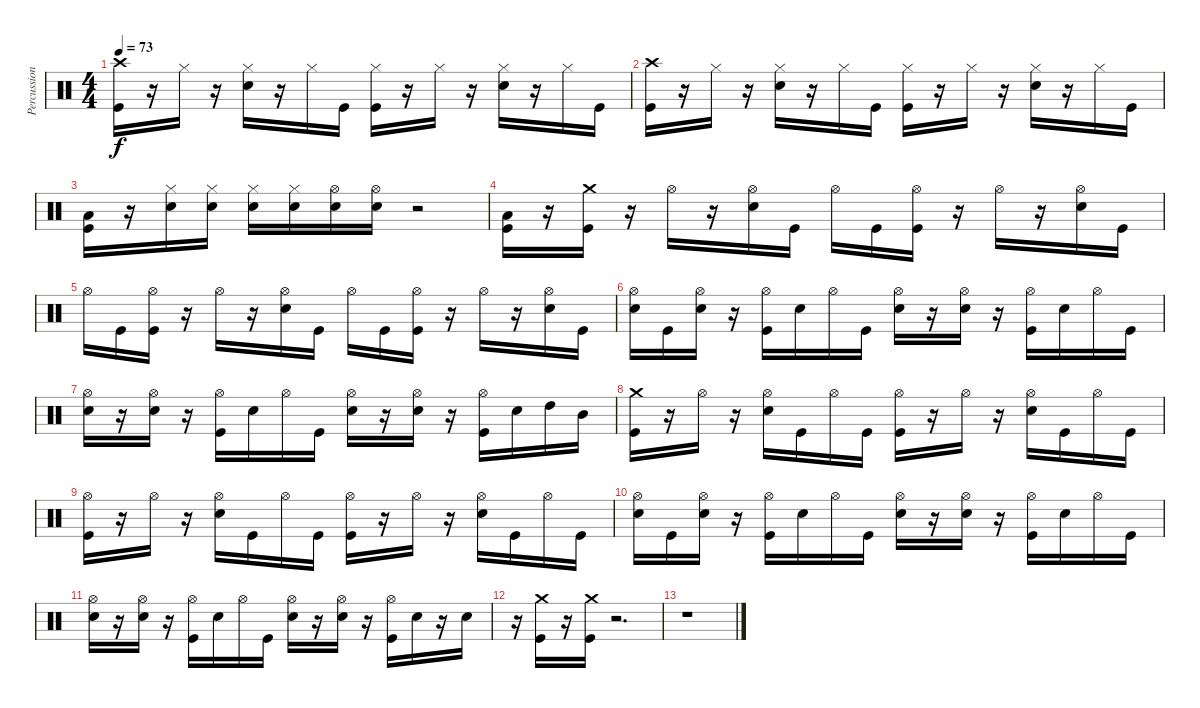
\track ("Percussion" "Percussion") {instrument percussion}
\staff {score}
\articulation defaults
\ts (4 4)
\tempo 73
\clef neutral
\ks c
("Crash high (hit)" "Kick (hit)").16{dy f} r.16 "Hi-Hat (closed)".16 r.16 ("Hi-Hat (closed)" "Electric Snare (hit)").16 r.16 "Hi-Hat (closed)".16 "Kick (hit)".16 ("Hi-Hat (closed)" "Kick (hit)").16 r.16 "Hi-Hat (closed)".16 r.16 ("Hi-Hat (closed)" "Electric Snare (hit)").16 r.16 "Hi-Hat (closed)".16 "Kick (hit)".16 |
("Crash high (hit)" "Kick (hit)").16 r.16 "Hi-Hat (closed)".16 r.16 ("Hi-Hat (closed)" "Electric Snare (hit)").16 r.16 "Hi-Hat (closed)".16 "Kick (hit)".16 ("Hi-Hat (closed)" "Kick (hit)").16 r.16 "Hi-Hat (closed)".16 r.16 ("Hi-Hat (closed)" "Electric Snare (hit)").16 r.16 "Hi-Hat (closed)".16 "Kick (hit)".16 |
("Low Tom (hit)" "Kick (hit)").16 r.16 ("Hi-Hat (closed)" "Electric Snare (hit)").16 ("Hi-Hat (closed)" "Electric Snare (hit)").16 ("Hi-Hat (closed)" "Electric Snare (hit)").16 ("Hi-Hat (closed)" "Electric Snare (hit)").16 ("Hi-Hat (open)" "Electric Snare (hit)").16 ("Hi-Hat (open)" "Electric Snare (hit)").16 r.2 |
("Low Tom (hit)" "Kick (hit)").16 r.16 ("Crash medium (hit)" "Kick (hit)").16 r.16 "Hi-Hat (open)".16 r.16 ("Hi-Hat (open)" "Electric Snare (hit)").16 "Kick (hit)".16 "Hi-Hat (open)".16 "Kick (hit)".16 ("Hi-Hat (open)" "Kick (hit)").16 r.16 "Hi-Hat (open)".16 r.16 ("Hi-Hat (open)" "Electric Snare (hit)").16 "Kick (hit)".16 |
"Hi-Hat (open)".16 "Kick (hit)".16 ("Hi-Hat (open)" "Kick (hit)").16 r.16 "Hi-Hat (open)".16 r.16 ("Hi-Hat (open)" "Electric Snare (hit)").16 "Kick (hit)".16 "Hi-Hat (open)".16 "Kick (hit)".16 ("Hi-Hat (open)" "Kick (hit)").16 r.16 "Hi-Hat (open)".16 r.16 ("Hi-Hat (open)" "Electric Snare (hit)").16 "Kick (hit)".16 |
("Hi-Hat (open)" "Electric Snare (hit)").16 "Kick (hit)".16 ("Hi-Hat (open)" "Electric Snare (hit)").16 r.16 ("Hi-Hat (open)" "Kick (hit)").16 "Electric Snare (hit)".16 "Hi-Hat (open)".16 "Kick (hit)".16 ("Hi-Hat (open)" "Electric Snare (hit)").16 r.16 ("Hi-Hat (open)" "Electric Snare (hit)").16 r.16 ("Hi-Hat (open)" "Kick (hit)").16 "Electric Snare (hit)".16 "Hi-Hat (open)".16 "Kick (hit)".16 |
("Hi-Hat (open)" "Electric Snare (hit)").16 r.16 ("Hi-Hat (open)" "Electric Snare (hit)").16 r.16 ("Hi-Hat (open)" "Kick (hit)").16 "Electric Snare (hit)".16 "Hi-Hat (open)".16 "Kick (hit)".16 ("Hi-Hat (open)" "Electric Snare (hit)").16 r.16 ("Hi-Hat (open)" "Electric Snare (hit)").16 r.16 ("Hi-Hat (open)" "Kick (hit)").16 "Electric Snare (hit)".16 "High Tom (hit)".16 "Mid Tom (hit)".16 |
("Crash medium (hit)" "Kick (hit)").16 r.16 "Hi-Hat (open)".16 r.16 ("Hi-Hat (open)" "Electric Snare (hit)").16 "Kick (hit)".16 "Hi-Hat (open)".16 "Kick (hit)".16 ("Hi-Hat (open)" "Kick (hit)").16 r.16 "Hi-Hat (open)".16 r.16 ("Hi-Hat (open)" "Electric Snare (hit)").16 "Kick (hit)".16 "Hi-Hat (open)".16 "Kick (hit)".16 |
("Hi-Hat (open)" "Kick (hit)").16 r.16 "Hi-Hat (open)".16 r.16 ("Hi-Hat (open)" "Electric Snare (hit)").16 "Kick (hit)".16 "Hi-Hat (open)".16 "Kick (hit)".16 ("Hi-Hat (open)" "Kick (hit)").16 r.16 "Hi-Hat (open)".16 r.16 ("Hi-Hat (open)" "Electric Snare (hit)").16 "Kick (hit)".16 "Hi-Hat (open)".16 "Kick (hit)".16 |
("Hi-Hat (open)" "Electric Snare (hit)").16 "Kick (hit)".16 ("Hi-Hat (open)" "Electric Snare (hit)").16 r.16 ("Hi-Hat (open)" "Kick (hit)").16 "Electric Snare (hit)".16 "Hi-Hat (open)".16 "Kick (hit)".16 ("Hi-Hat (open)" "Electric Snare (hit)").16 r.16 ("Hi-Hat (open)" "Electric Snare (hit)").16 r.16 ("Hi-Hat (open)" "Kick (hit)").16 "Electric Snare (hit)".16 "Hi-Hat (open)".16 "Kick (hit)".16 |
("Hi-Hat (open)" "Electric Snare (hit)").16 r.16 ("Hi-Hat (open)" "Electric Snare (hit)").16 r.16 ("Hi-Hat (open)" "Kick (hit)").16 "Electric Snare (hit)".16 "Hi-Hat (open)".16 "Kick (hit)".16 ("Hi-Hat (open)" "Electric Snare (hit)").16 r.16 ("Hi-Hat (open)" "Electric Snare (hit)").16 r.16 ("Hi-Hat (open)" "Kick (hit)").16 "Electric Snare (hit)".16 r.16 "Electric Snare (hit)".16 |
r.16 ("Crash medium (hit)" "Kick (hit)").16 r.16 ("Crash medium (hit)" "Kick (hit)").16 r.2{d} |
r.1
